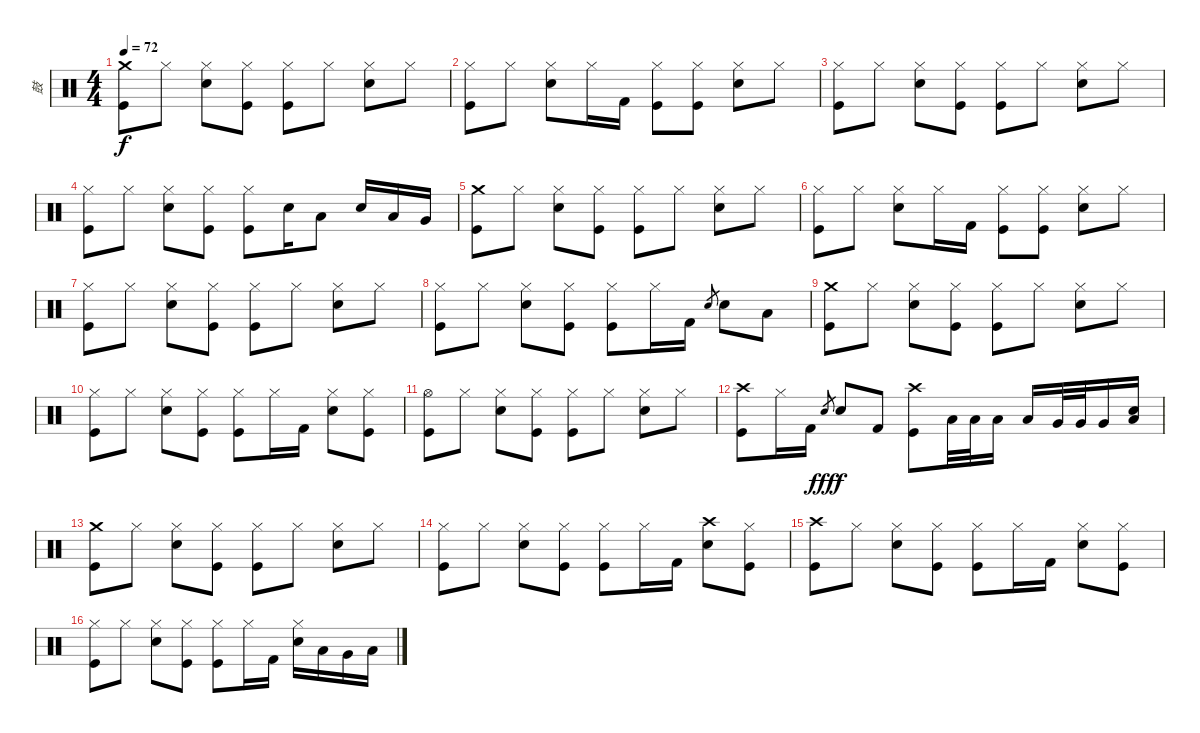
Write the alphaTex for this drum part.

\track ("鼓" "鼓") {instrument percussion}
\staff {score}
\articulation defaults
\ts (4 4)
\tempo 72
\clef neutral
\ks c
("Crash medium (hit)" "Kick (hit)").8{dy f} "Hi-Hat (closed)".8 ("Hi-Hat (closed)" "Snare (hit) 2").8 ("Hi-Hat (closed)" "Kick (hit)").8 ("Hi-Hat (closed)" "Kick (hit)").8 "Hi-Hat (closed)".8 ("Hi-Hat (closed)" "Snare (hit) 2").8 "Hi-Hat (closed)".8 |
("Hi-Hat (closed)" "Kick (hit)").8 "Hi-Hat (closed)".8 ("Hi-Hat (closed)" "Snare (hit) 2").8 "Hi-Hat (closed)".16 "Kick (hit) 2".16 ("Hi-Hat (closed)" "Kick (hit)").8 ("Hi-Hat (closed)" "Kick (hit)").8 ("Hi-Hat (closed)" "Snare (hit) 2").8 "Hi-Hat (closed)".8 |
("Hi-Hat (closed)" "Kick (hit)").8 "Hi-Hat (closed)".8 ("Hi-Hat (closed)" "Snare (hit) 2").8 ("Hi-Hat (closed)" "Kick (hit)").8 ("Hi-Hat (closed)" "Kick (hit)").8 "Hi-Hat (closed)".8 ("Hi-Hat (closed)" "Snare (hit) 2").8 "Hi-Hat (closed)".8 |
("Hi-Hat (closed)" "Kick (hit)").8 "Hi-Hat (closed)".8 ("Hi-Hat (closed)" "Snare (hit) 2").8 ("Hi-Hat (closed)" "Kick (hit)").8 ("Hi-Hat (closed)" "Kick (hit)").8 "Snare (hit) 2".16 "Low Tom (hit)".8 "Snare (hit) 2".16 "Low Tom (hit)".16 "Very Low Tom (hit)".16 |
("Crash medium (hit)" "Kick (hit)").8 "Hi-Hat (closed)".8 ("Hi-Hat (closed)" "Snare (hit) 2").8 ("Hi-Hat (closed)" "Kick (hit)").8 ("Hi-Hat (closed)" "Kick (hit)").8 "Hi-Hat (closed)".8 ("Hi-Hat (closed)" "Snare (hit) 2").8 "Hi-Hat (closed)".8 |
("Hi-Hat (closed)" "Kick (hit)").8 "Hi-Hat (closed)".8 ("Hi-Hat (closed)" "Snare (hit) 2").8 "Hi-Hat (closed)".16 "Kick (hit) 2".16 ("Hi-Hat (closed)" "Kick (hit)").8 ("Hi-Hat (closed)" "Kick (hit)").8 ("Hi-Hat (closed)" "Snare (hit) 2").8 "Hi-Hat (closed)".8 |
("Hi-Hat (closed)" "Kick (hit)").8 "Hi-Hat (closed)".8 ("Hi-Hat (closed)" "Snare (hit) 2").8 ("Hi-Hat (closed)" "Kick (hit)").8 ("Hi-Hat (closed)" "Kick (hit)").8 "Hi-Hat (closed)".8 ("Hi-Hat (closed)" "Snare (hit) 2").8 "Hi-Hat (closed)".8 |
("Hi-Hat (closed)" "Kick (hit)").8 "Hi-Hat (closed)".8 ("Hi-Hat (closed)" "Snare (hit) 2").8 ("Hi-Hat (closed)" "Kick (hit)").8 ("Hi-Hat (closed)" "Kick (hit)").8 "Hi-Hat (closed)".16 "Kick (hit) 2".16 "Snare (hit) 2".8{gr} "Snare (hit) 2".8 "Low Tom (hit)".8 |
("Crash medium (hit)" "Kick (hit)").8 "Hi-Hat (closed)".8 ("Hi-Hat (closed)" "Snare (hit) 2").8 ("Hi-Hat (closed)" "Kick (hit)").8 ("Hi-Hat (closed)" "Kick (hit)").8 "Hi-Hat (closed)".8 ("Hi-Hat (closed)" "Snare (hit) 2").8 "Hi-Hat (closed)".8 |
("Hi-Hat (closed)" "Kick (hit)").8 "Hi-Hat (closed)".8 ("Hi-Hat (closed)" "Snare (hit) 2").8 ("Hi-Hat (closed)" "Kick (hit)").8 ("Hi-Hat (closed)" "Kick (hit)").8 "Hi-Hat (closed)".16 "Kick (hit) 2".16 ("Hi-Hat (closed)" "Snare (hit) 2").8 ("Hi-Hat (closed)" "Kick (hit)").8 |
("Hi-Hat (open)" "Kick (hit)").8 "Hi-Hat (closed)".8 ("Hi-Hat (closed)" "Snare (hit) 2").8 ("Hi-Hat (closed)" "Kick (hit)").8 ("Hi-Hat (closed)" "Kick (hit)").8 "Hi-Hat (closed)".8 ("Hi-Hat (closed)" "Snare (hit) 2").8 "Hi-Hat (closed)".8 |
("Crash high (hit)" "Kick (hit)").8 "Hi-Hat (closed)".16 "Kick (hit) 2".16 "Snare (hit) 2".8{gr dy fff} "Snare (hit) 2".8{dy f} "Kick (hit) 2".8 ("Crash high (hit)" "Kick (hit)").8 "Low Tom (hit)".32 "Low Tom (hit)".32 "Low Tom (hit)".16 "Low Tom (hit)".16 "Very Low Tom (hit)".32 "Very Low Tom (hit)".32 "Very Low Tom (hit)".16 ("Low Floor Tom (hit)" "Electric Snare (hit)").16 |
("Crash medium (hit)" "Kick (hit)").8 "Hi-Hat (closed)".8 ("Hi-Hat (closed)" "Snare (hit) 2").8 ("Hi-Hat (closed)" "Kick (hit)").8 ("Hi-Hat (closed)" "Kick (hit)").8 "Hi-Hat (closed)".8 ("Hi-Hat (closed)" "Snare (hit) 2").8 "Hi-Hat (closed)".8 |
("Hi-Hat (closed)" "Kick (hit)").8 "Hi-Hat (closed)".8 ("Hi-Hat (closed)" "Snare (hit) 2").8 ("Hi-Hat (closed)" "Kick (hit)").8 ("Hi-Hat (closed)" "Kick (hit)").8 "Hi-Hat (closed)".16 "Kick (hit) 2".16 ("Crash high (hit)" "Snare (hit) 2").8 ("Hi-Hat (closed)" "Kick (hit)").8 |
("Crash high (hit)" "Kick (hit)").8 "Hi-Hat (closed)".8 ("Hi-Hat (closed)" "Snare (hit) 2").8 ("Hi-Hat (closed)" "Kick (hit)").8 ("Hi-Hat (closed)" "Kick (hit)").8 "Hi-Hat (closed)".16 "Kick (hit) 2".16 ("Hi-Hat (closed)" "Snare (hit) 2").8 ("Hi-Hat (closed)" "Kick (hit)").8 |
("Hi-Hat (closed)" "Kick (hit)").8 "Hi-Hat (closed)".8 ("Hi-Hat (closed)" "Snare (hit) 2").8 ("Hi-Hat (closed)" "Kick (hit)").8 ("Hi-Hat (closed)" "Kick (hit)").8 "Hi-Hat (closed)".16 "Kick (hit) 2".16 ("Hi-Hat (closed)" "Snare (hit) 2").16 "Low Tom (hit)".16 "Very Low Tom (hit)".16 "Low Floor Tom (hit)".16
